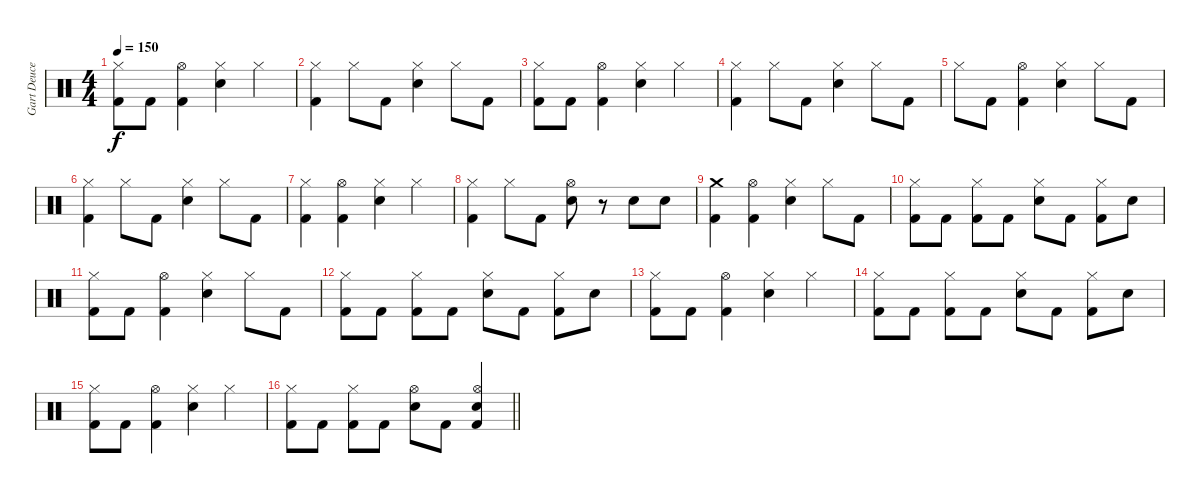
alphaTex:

\track ("Gart Deuce" "Gart Deuce") {instrument percussion}
\staff {score}
\articulation defaults
\ts (4 4)
\tempo 150
\clef neutral
\ks c
("Hi-Hat (closed)" "Kick (hit) 2").8{dy f} "Kick (hit) 2".8 ("Hi-Hat (open)" "Kick (hit) 2").4 ("Hi-Hat (closed)" "Snare (hit) 2").4 "Hi-Hat (closed)".4 |
("Hi-Hat (closed)" "Kick (hit) 2").4 "Hi-Hat (closed)".8 "Kick (hit) 2".8 ("Hi-Hat (closed)" "Snare (hit) 2").4 "Hi-Hat (closed)".8 "Kick (hit) 2".8 |
("Hi-Hat (closed)" "Kick (hit) 2").8 "Kick (hit) 2".8 ("Hi-Hat (open)" "Kick (hit) 2").4 ("Hi-Hat (closed)" "Snare (hit) 2").4 "Hi-Hat (closed)".4 |
("Hi-Hat (closed)" "Kick (hit) 2").4 "Hi-Hat (closed)".8 "Kick (hit) 2".8 ("Hi-Hat (closed)" "Snare (hit) 2").4 "Hi-Hat (closed)".8 "Kick (hit) 2".8 |
"Hi-Hat (closed)".8 "Kick (hit) 2".8 ("Hi-Hat (open)" "Kick (hit) 2").4 ("Hi-Hat (closed)" "Snare (hit) 2").4 "Hi-Hat (closed)".8 "Kick (hit) 2".8 |
("Hi-Hat (closed)" "Kick (hit) 2").4 "Hi-Hat (closed)".8 "Kick (hit) 2".8 ("Hi-Hat (closed)" "Snare (hit) 2").4 "Hi-Hat (closed)".8 "Kick (hit) 2".8 |
("Hi-Hat (closed)" "Kick (hit) 2").4 ("Hi-Hat (open)" "Kick (hit) 2").4 ("Hi-Hat (closed)" "Snare (hit) 2").4 "Hi-Hat (closed)".4 |
("Hi-Hat (closed)" "Kick (hit) 2").4 "Hi-Hat (closed)".8 "Kick (hit) 2".8 ("Hi-Hat (open)" "Snare (hit) 2").8 r.8 "Snare (hit) 2".8 "Snare (hit) 2".8 |
("Crash medium (hit)" "Kick (hit) 2").4 ("Hi-Hat (open)" "Kick (hit) 2").4 ("Hi-Hat (closed)" "Snare (hit) 2").4 "Hi-Hat (closed)".8 "Kick (hit) 2".8 |
("Hi-Hat (closed)" "Kick (hit) 2").8 "Kick (hit) 2".8 ("Hi-Hat (closed)" "Kick (hit) 2").8 "Kick (hit) 2".8 ("Hi-Hat (closed)" "Snare (hit) 2").8 "Kick (hit) 2".8 ("Hi-Hat (closed)" "Kick (hit) 2").8 "Snare (hit) 2".8 |
("Hi-Hat (closed)" "Kick (hit) 2").8 "Kick (hit) 2".8 ("Hi-Hat (open)" "Kick (hit) 2").4 ("Hi-Hat (closed)" "Snare (hit) 2").4 "Hi-Hat (closed)".8 "Kick (hit) 2".8 |
("Hi-Hat (closed)" "Kick (hit) 2").8 "Kick (hit) 2".8 ("Hi-Hat (closed)" "Kick (hit) 2").8 "Kick (hit) 2".8 ("Hi-Hat (closed)" "Snare (hit) 2").8 "Kick (hit) 2".8 ("Hi-Hat (closed)" "Kick (hit) 2").8 "Snare (hit) 2".8 |
("Hi-Hat (closed)" "Kick (hit) 2").8 "Kick (hit) 2".8 ("Hi-Hat (open)" "Kick (hit) 2").4 ("Hi-Hat (closed)" "Snare (hit) 2").4 "Hi-Hat (closed)".4 |
("Hi-Hat (closed)" "Kick (hit) 2").8 "Kick (hit) 2".8 ("Hi-Hat (closed)" "Kick (hit) 2").8 "Kick (hit) 2".8 ("Hi-Hat (closed)" "Snare (hit) 2").8 "Kick (hit) 2".8 ("Hi-Hat (closed)" "Kick (hit) 2").8 "Snare (hit) 2".8 |
("Hi-Hat (closed)" "Kick (hit) 2").8 "Kick (hit) 2".8 ("Hi-Hat (open)" "Kick (hit) 2").4 ("Hi-Hat (closed)" "Snare (hit) 2").4 "Hi-Hat (closed)".4 |
\barLineRight lightlight
("Hi-Hat (closed)" "Kick (hit) 2").8 "Kick (hit) 2".8 ("Hi-Hat (closed)" "Kick (hit) 2").8 "Kick (hit) 2".8 ("Hi-Hat (open)" "Snare (hit) 2").8 "Kick (hit) 2".8 ("Hi-Hat (open)" "Snare (hit) 2" "Kick (hit) 2").4
